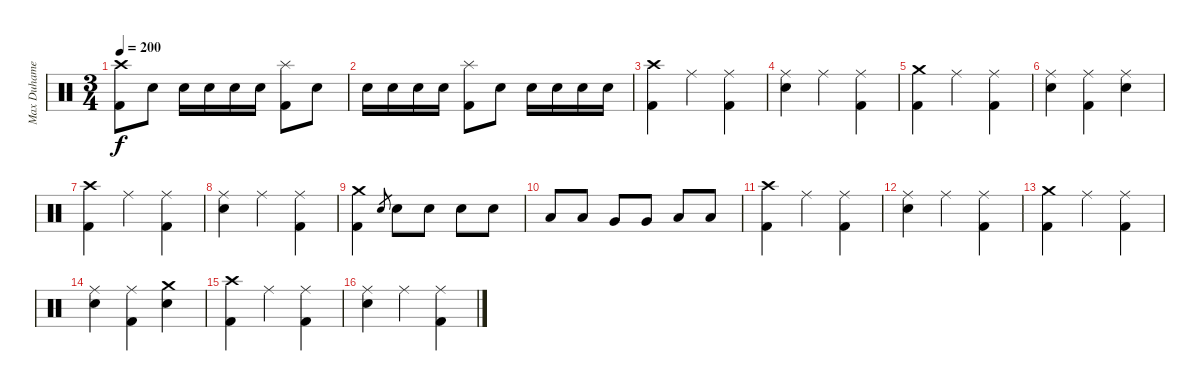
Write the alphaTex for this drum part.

\track ("Max Duhamel" "Max Duhame") {instrument percussion}
\staff {score}
\articulation defaults
\ts (3 4)
\tempo 200
\clef neutral
\ks c
("Crash high (hit)" "Kick (hit) 2").8{dy f} "Electric Snare (hit)".8 "Electric Snare (hit)".16 "Electric Snare (hit)".16 "Electric Snare (hit)".16 "Electric Snare (hit)".16 ("Splash (hit)" "Kick (hit) 2").8 "Electric Snare (hit)".8 |
"Electric Snare (hit)".16 "Electric Snare (hit)".16 "Electric Snare (hit)".16 "Electric Snare (hit)".16 ("Splash (hit)" "Kick (hit) 2").8 "Electric Snare (hit)".8 "Electric Snare (hit)".16 "Electric Snare (hit)".16 "Electric Snare (hit)".16 "Electric Snare (hit)".16 |
\section ("" "")
("Crash high (hit)" "Kick (hit) 2").4 "Ride (middle)".4 ("Ride (middle)" "Kick (hit) 2").4 |
("Ride (middle)" "Electric Snare (hit)").4 "Ride (middle)".4 ("Ride (middle)" "Kick (hit) 2").4 |
("Crash medium (hit)" "Kick (hit) 2").4 "Ride (middle)".4 ("Ride (middle)" "Kick (hit) 2").4 |
("Ride (middle)" "Electric Snare (hit)").4 ("Ride (middle)" "Kick (hit) 2").4 ("Ride (middle)" "Electric Snare (hit)").4 |
("Crash high (hit)" "Kick (hit) 2").4 "Ride (middle)".4 ("Ride (middle)" "Kick (hit) 2").4 |
("Ride (middle)" "Electric Snare (hit)").4 "Ride (middle)".4 ("Ride (middle)" "Kick (hit) 2").4 |
("Crash medium (hit)" "Kick (hit) 2").4 "Electric Snare (hit)".8{gr} "Electric Snare (hit)".8 "Electric Snare (hit)".8 "Electric Snare (hit)".8 "Electric Snare (hit)".8 |
"Low Tom (hit)".8 "Low Tom (hit)".8 "Very Low Tom (hit)".8 "Very Low Tom (hit)".8 "Low Floor Tom (hit)".8 "Low Floor Tom (hit)".8 |
\section ("" "")
("Crash high (hit)" "Kick (hit) 2").4 "Ride (middle)".4 ("Ride (middle)" "Kick (hit) 2").4 |
("Ride (middle)" "Electric Snare (hit)").4 "Ride (middle)".4 ("Ride (middle)" "Kick (hit) 2").4 |
("Crash medium (hit)" "Kick (hit) 2").4 "Ride (middle)".4 ("Ride (middle)" "Kick (hit) 2").4 |
("Ride (middle)" "Electric Snare (hit)").4 ("Ride (middle)" "Kick (hit) 2").4 ("Crash medium (hit)" "Electric Snare (hit)").4 |
("Crash high (hit)" "Kick (hit) 2").4 "Ride (middle)".4 ("Ride (middle)" "Kick (hit) 2").4 |
("Ride (middle)" "Electric Snare (hit)").4 "Ride (middle)".4 ("Ride (middle)" "Kick (hit) 2").4
